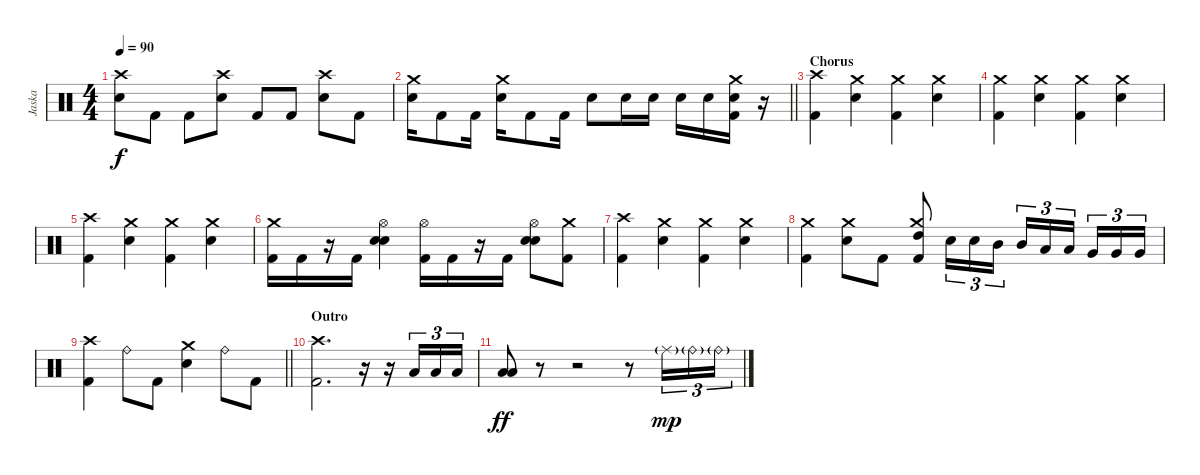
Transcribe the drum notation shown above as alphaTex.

\track ("Jaska" "Jaska") {instrument percussion}
\staff {score}
\articulation defaults
\ts (4 4)
\tempo 90
\clef neutral
\ks c
("Crash high (hit)" "Snare (hit) 2").8{dy f} "Kick (hit) 2".8 "Kick (hit) 2".8 ("Crash high (hit)" "Snare (hit) 2").8 "Kick (hit) 2".8 "Kick (hit) 2".8 ("Crash high (hit)" "Snare (hit) 2").8 "Kick (hit) 2".8 |
\barLineRight lightlight
("Crash medium (hit)" "Snare (hit) 2").16 "Kick (hit) 2".8 "Kick (hit) 2".16 ("Crash medium (hit)" "Snare (hit) 2").16 "Kick (hit) 2".8 "Kick (hit) 2".16 "Snare (hit) 2".8 "Snare (hit) 2".16 "Snare (hit) 2".16 "Snare (hit) 2".16 "Snare (hit) 2".16 ("Crash medium (hit)" "Snare (hit) 2" "Kick (hit) 2").16 r.16 |
\section ("" "Chorus")
("Crash high (hit)" "Kick (hit) 2").4 ("Crash medium (hit)" "Snare (hit) 2").4 ("Crash medium (hit)" "Kick (hit) 2").4 ("Crash medium (hit)" "Snare (hit) 2").4 |
("Crash medium (hit)" "Kick (hit) 2").4 ("Crash medium (hit)" "Snare (hit) 2").4 ("Crash medium (hit)" "Kick (hit) 2").4 ("Crash medium (hit)" "Snare (hit) 2").4 |
("Crash high (hit)" "Kick (hit) 2").4 ("Crash medium (hit)" "Snare (hit) 2").4 ("Crash medium (hit)" "Kick (hit) 2").4 ("Crash medium (hit)" "Snare (hit) 2").4 |
("Crash medium (hit)" "Kick (hit) 2").16 "Kick (hit) 2".16 r.16 "Kick (hit) 2".16 ("Hi-Hat (open)" "Snare (hit) 2" "Snare (hit) 2").4 ("Hi-Hat (open)" "Kick (hit) 2").16 "Kick (hit) 2".16 r.16 "Kick (hit) 2".16 ("Hi-Hat (open)" "Snare (hit) 2" "Snare (hit) 2").8 ("Crash medium (hit)" "Kick (hit) 2").8 |
("Crash high (hit)" "Kick (hit) 2").4 ("Crash medium (hit)" "Snare (hit) 2").4 ("Crash medium (hit)" "Kick (hit) 2").4 ("Crash medium (hit)" "Snare (hit) 2").4 |
("Crash medium (hit)" "Kick (hit) 2").4 ("Crash medium (hit)" "Snare (hit) 2").8 "Kick (hit) 2".8 ("Crash medium (hit)" "High Tom (hit)" "Kick (hit) 2").8 "Snare (hit) 2".16{tu (3 2)} "Snare (hit) 2".16{tu (3 2)} "Mid Tom (hit)".16{tu (3 2)} "Mid Tom (hit)".16{tu (3 2)} "Low Tom (hit)".16{tu (3 2)} "Low Tom (hit)".16{tu (3 2) beam splitsecondary} "Very Low Tom (hit)".16{tu (3 2)} "Very Low Tom (hit)".16{tu (3 2)} "Very Low Tom (hit)".16{tu (3 2)} |
\barLineRight lightlight
("Crash high (hit)" "Kick (hit) 2").4 "Ride (bell)".8 "Kick (hit) 2".8 ("Crash medium (hit)" "Snare (hit) 2").4 "Ride (bell)".8 "Kick (hit) 2".8 |
\section ("" "Outro")
("Crash high (hit)" "Kick (hit) 2").2{d} r.16 r.16 "Low Tom (hit)".16{tu (3 2)} "Low Tom (hit)".16{tu (3 2)} "Low Tom (hit)".16{tu (3 2)} |
("Low Tom (hit)" "Low Tom (hit)").8{dy ff} r.8 r.2 r.8 "Ride (middle)"{g}.16{tu (3 2) dy mp} "Ride (bell)"{g}.16{tu (3 2)} "Ride (bell)"{g}.16{tu (3 2)}
